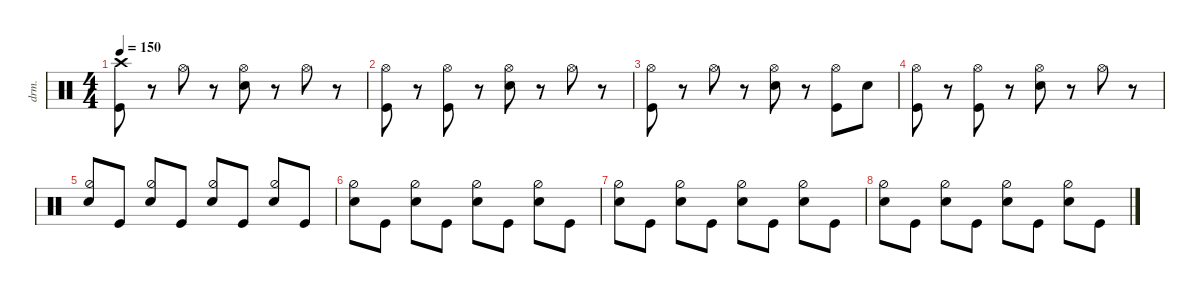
\defaultSystemsLayout 4
\hideDynamics
\bracketExtendMode nobrackets
\track ("Drumkit" "drm.") {instrument percussion}
\staff {score}
\articulation defaults
\ts (4 4)
\tempo 150
\clef neutral
\ks c
("Kick (hit)" "Crash high (hit)").8{dy mf beam Down} r.8{beam Down} "Hi-Hat (open)".8{beam Down} r.8{beam Down} ("Snare (hit) 2" "Hi-Hat (open)").8{beam Down} r.8{beam Down} "Hi-Hat (open)".8{beam Down} r.8{beam Down} |
("Kick (hit)" "Hi-Hat (open)").8{beam Down} r.8{beam Down} ("Kick (hit)" "Hi-Hat (open)").8{beam Down} r.8{beam Down} ("Snare (hit) 2" "Hi-Hat (open)").8{beam Down} r.8{beam Down} "Hi-Hat (open)".8{beam Down} r.8{beam Down} |
("Kick (hit)" "Hi-Hat (open)").8{beam Down} r.8{beam Down} "Hi-Hat (open)".8{beam Down} r.8{beam Down} ("Snare (hit) 2" "Hi-Hat (open)").8{beam Down} r.8{beam Down} ("Kick (hit)" "Hi-Hat (open)").8{beam Down} "Snare (hit) 2".8{beam Down} |
("Kick (hit)" "Hi-Hat (open)").8{beam Down} r.8{beam Down} ("Kick (hit)" "Hi-Hat (open)").8{beam Down} r.8{beam Down} ("Snare (hit) 2" "Hi-Hat (open)").8{beam Down} r.8{beam Down} "Hi-Hat (open)".8{beam Down} r.8{beam Down} |
("Snare (hit) 2" "Hi-Hat (half)").8{beam Up} "Kick (hit)".8{beam Up} ("Snare (hit) 2" "Hi-Hat (half)").8{beam Up} "Kick (hit)".8{beam Up} ("Snare (hit) 2" "Hi-Hat (half)").8{beam Up} "Kick (hit)".8{beam Up} ("Snare (hit) 2" "Hi-Hat (half)").8{beam Up} "Kick (hit)".8{beam Up} |
("Snare (hit) 2" "Hi-Hat (half)").8{beam Down} "Kick (hit)".8{beam Down} ("Snare (hit) 2" "Hi-Hat (half)").8{beam Down} "Kick (hit)".8{beam Down} ("Snare (hit) 2" "Hi-Hat (half)").8{beam Down} "Kick (hit)".8{beam Down} ("Snare (hit) 2" "Hi-Hat (half)").8{beam Down} "Kick (hit)".8{beam Down} |
("Snare (hit) 2" "Hi-Hat (half)").8{beam Down} "Kick (hit)".8{beam Down} ("Snare (hit) 2" "Hi-Hat (half)").8{beam Down} "Kick (hit)".8{beam Down} ("Snare (hit) 2" "Hi-Hat (half)").8{beam Down} "Kick (hit)".8{beam Down} ("Snare (hit) 2" "Hi-Hat (half)").8{beam Down} "Kick (hit)".8{beam Down} |
("Snare (hit) 2" "Hi-Hat (half)").8{beam Down} "Kick (hit)".8{beam Down} ("Snare (hit) 2" "Hi-Hat (half)").8{beam Down} "Kick (hit)".8{beam Down} ("Snare (hit) 2" "Hi-Hat (half)").8{beam Down} "Kick (hit)".8{beam Down} ("Snare (hit) 2" "Hi-Hat (half)").8{beam Down} "Kick (hit)".8{beam Down}
